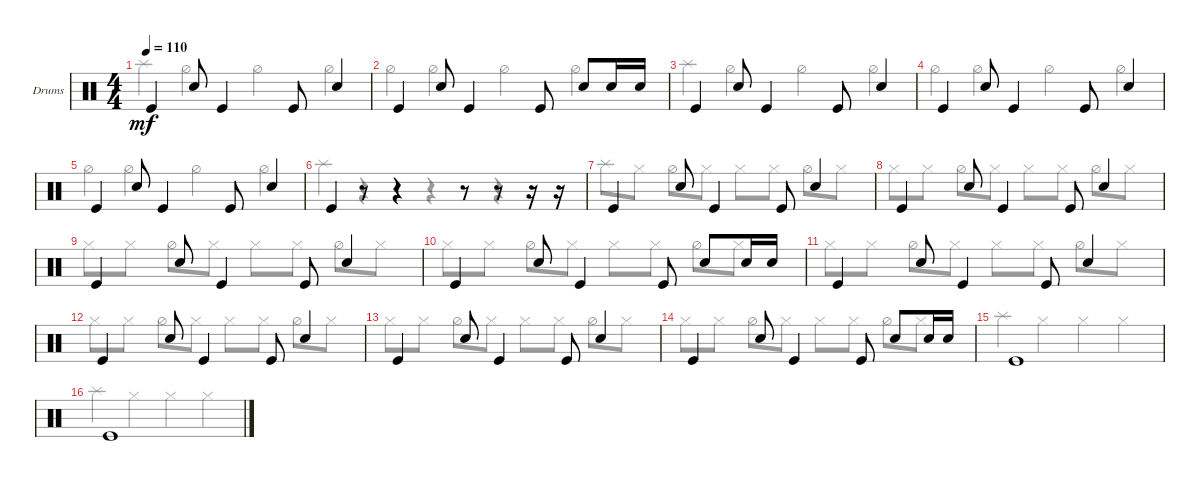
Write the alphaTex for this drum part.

\defaultSystemsLayout 4
\bracketExtendMode groupsimilarinstruments
\firstSystemTrackNameOrientation horizontal
\otherSystemsTrackNameOrientation horizontal
\track ("Drumkit" "Drums") {instrument percussion}
\staff {score}
\articulation defaults
\voice
\ts (4 4)
\tempo 110
\clef neutral
\scale
0.333333
\ks c "Kick (hit)".4{dy mf} "Snare (hit) 2".8 "Kick (hit)".4 "Kick (hit)".8 "Snare (hit) 2".4
|
\scale
0.333333 "Kick (hit)".4 "Snare (hit) 2".8 "Kick (hit)".4 "Kick (hit)".8 "Snare (hit) 2".8 "Snare (hit) 2".16 "Snare (hit) 2".16 |
\scale
0.333333 "Kick (hit)".4 "Snare (hit) 2".8 "Kick (hit)".4 "Kick (hit)".8 "Snare (hit) 2".4 |
\scale
0.333333 "Kick (hit)".4 "Snare (hit) 2".8 "Kick (hit)".4 "Kick (hit)".8 "Snare (hit) 2".4 |
\scale
0.333333 "Kick (hit)".4 "Snare (hit) 2".8 "Kick (hit)".4 "Kick (hit)".8 "Snare (hit) 2".4 |
\scale
0.333333 "Kick (hit)".4 r.8 r.4 r.8 r.8 r.16 r.16 |
\scale
0.333333 "Kick (hit)".4 "Snare (hit) 2".8 "Kick (hit)".4 "Kick (hit)".8 "Snare (hit) 2".4 |
\scale
0.333333 "Kick (hit)".4 "Snare (hit) 2".8 "Kick (hit)".4 "Kick (hit)".8 "Snare (hit) 2".4 |
\scale
0.333333 "Kick (hit)".4 "Snare (hit) 2".8 "Kick (hit)".4 "Kick (hit)".8 "Snare (hit) 2".4 |
\scale
0.333333 "Kick (hit)".4 "Snare (hit) 2".8 "Kick (hit)".4 "Kick (hit)".8 "Snare (hit) 2".8 "Snare (hit) 2".16 "Snare (hit) 2".16 |
\scale
0.333333 "Kick (hit)".4 "Snare (hit) 2".8 "Kick (hit)".4 "Kick (hit)".8 "Snare (hit) 2".4 |
\scale
0.333333 "Kick (hit)".4 "Snare (hit) 2".8 "Kick (hit)".4 "Kick (hit)".8 "Snare (hit) 2".4 |
\scale
0.333333 "Kick (hit)".4 "Snare (hit) 2".8 "Kick (hit)".4 "Kick (hit)".8 "Snare (hit) 2".4 |
\scale
0.333333 "Kick (hit)".4 "Snare (hit) 2".8 "Kick (hit)".4 "Kick (hit)".8 "Snare (hit) 2".8 "Snare (hit) 2".16 "Snare (hit) 2".16 |
\scale
0.333333 "Kick (hit)".1 |
\scale
0.333333 "Kick (hit)".1
\voice
\clef neutral
\ottava regular
\simile none
\scale
0.333333
\ks c "Splash (hit)".4{dy mf} "Hi-Hat (half)".4 "Hi-Hat (half)".4 "Hi-Hat (half)".4
|
\scale
0.333333 "Hi-Hat (half)".4 "Hi-Hat (half)".4 "Hi-Hat (half)".4 "Hi-Hat (half)".4 |
\scale
0.333333 "Splash (hit)".4 "Hi-Hat (half)".4 "Hi-Hat (half)".4 "Hi-Hat (half)".4 |
\scale
0.333333 "Hi-Hat (half)".4 "Hi-Hat (half)".4 "Hi-Hat (half)".4 "Hi-Hat (half)".4 |
\scale
0.333333 "Hi-Hat (half)".4 "Hi-Hat (half)".4 "Hi-Hat (half)".4 "Hi-Hat (half)".4 |
\scale
0.333333 "Splash (hit)".4 r.4 r.4 r.4 |
\scale
0.333333 "Splash (hit)".8 "Hi-Hat (closed)".8 "Hi-Hat (half)".8 "Hi-Hat (closed)".8 "Hi-Hat (closed)".8 "Hi-Hat (closed)".8 "Hi-Hat (half)".8 "Hi-Hat (closed)".8 |
\scale
0.333333 "Hi-Hat (closed)".8 "Hi-Hat (closed)".8 "Hi-Hat (half)".8 "Hi-Hat (closed)".8 "Hi-Hat (closed)".8 "Hi-Hat (closed)".8 "Hi-Hat (half)".8 "Hi-Hat (closed)".8 |
\scale
0.333333 "Hi-Hat (closed)".8 "Hi-Hat (closed)".8 "Hi-Hat (half)".8 "Hi-Hat (closed)".8 "Hi-Hat (closed)".8 "Hi-Hat (closed)".8 "Hi-Hat (half)".8 "Hi-Hat (closed)".8 |
\scale
0.333333 "Hi-Hat (closed)".8 "Hi-Hat (closed)".8 "Hi-Hat (half)".8 "Hi-Hat (closed)".8 "Hi-Hat (closed)".8 "Hi-Hat (closed)".8 "Hi-Hat (half)".8 "Hi-Hat (closed)".8 |
\scale
0.333333 "Hi-Hat (closed)".8 "Hi-Hat (closed)".8 "Hi-Hat (half)".8 "Hi-Hat (closed)".8 "Hi-Hat (closed)".8 "Hi-Hat (closed)".8 "Hi-Hat (half)".8 "Hi-Hat (closed)".8 |
\scale
0.333333 "Hi-Hat (closed)".8 "Hi-Hat (closed)".8 "Hi-Hat (half)".8 "Hi-Hat (closed)".8 "Hi-Hat (closed)".8 "Hi-Hat (closed)".8 "Hi-Hat (half)".8 "Hi-Hat (closed)".8 |
\scale
0.333333 "Hi-Hat (closed)".8 "Hi-Hat (closed)".8 "Hi-Hat (half)".8 "Hi-Hat (closed)".8 "Hi-Hat (closed)".8 "Hi-Hat (closed)".8 "Hi-Hat (half)".8 "Hi-Hat (closed)".8 |
\scale
0.333333 "Hi-Hat (closed)".8 "Hi-Hat (closed)".8 "Hi-Hat (half)".8 "Hi-Hat (closed)".8 "Hi-Hat (closed)".8 "Hi-Hat (closed)".8 "Hi-Hat (half)".8 "Hi-Hat (closed)".8 |
\scale
0.333333 "Splash (hit)".4 "Hi-Hat (closed)".4 "Hi-Hat (closed)".4 "Hi-Hat (closed)".4 |
\scale
0.333333 "Splash (hit)".4 "Hi-Hat (closed)".4 "Hi-Hat (closed)".4 "Hi-Hat (closed)".4
